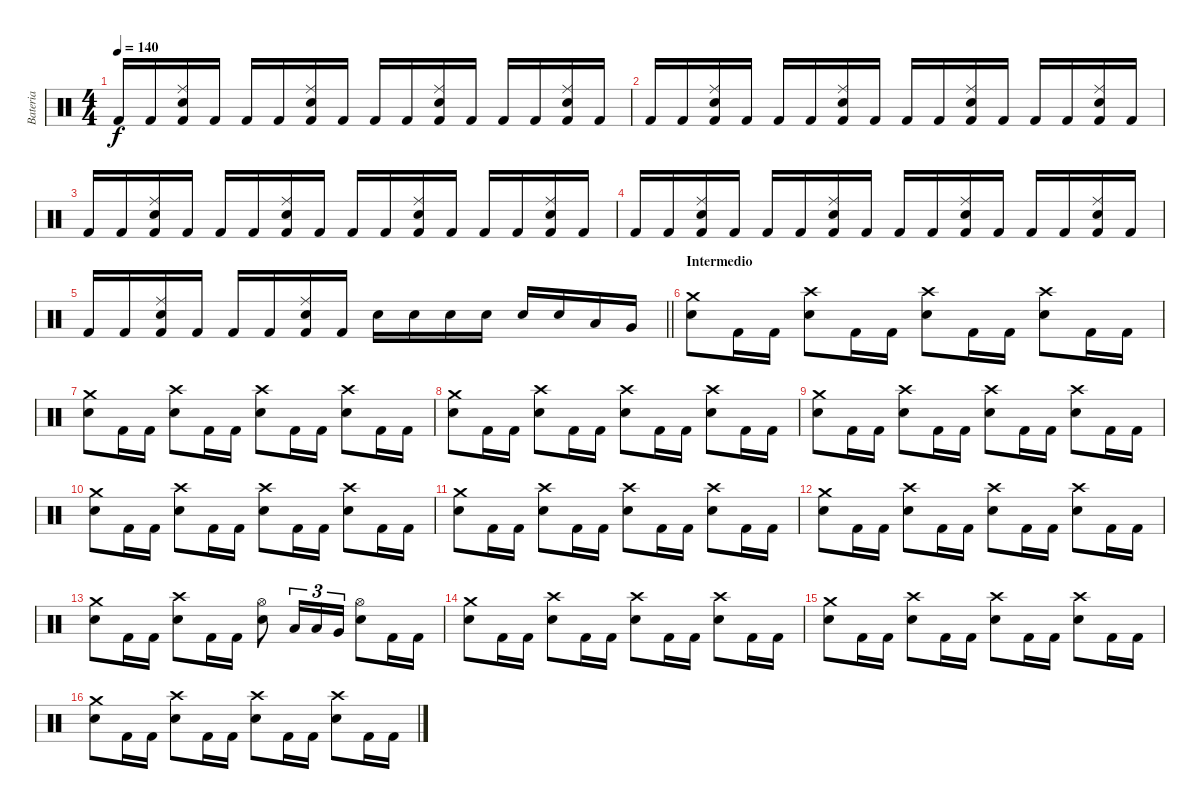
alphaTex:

\track ("Bateria" "Bateria") {instrument percussion}
\staff {score}
\articulation defaults
\ts (4 4)
\tempo 140
\clef neutral
\ks c "Kick (hit) 2".16{dy f} "Kick (hit) 2".16
("Ride (middle)" "Snare (hit) 2" "Kick (hit) 2").16 "Kick (hit) 2".16 "Kick (hit) 2".16 "Kick (hit) 2".16 ("Ride (middle)" "Snare (hit) 2" "Kick (hit) 2").16 "Kick (hit) 2".16 "Kick (hit) 2".16 "Kick (hit) 2".16 ("Ride (middle)" "Snare (hit) 2" "Kick (hit) 2").16 "Kick (hit) 2".16 "Kick (hit) 2".16 "Kick (hit) 2".16 ("Ride (middle)" "Snare (hit) 2" "Kick (hit) 2").16 "Kick (hit) 2".16 |
"Kick (hit) 2".16 "Kick (hit) 2".16 ("Ride (middle)" "Snare (hit) 2" "Kick (hit) 2").16 "Kick (hit) 2".16 "Kick (hit) 2".16 "Kick (hit) 2".16 ("Ride (middle)" "Snare (hit) 2" "Kick (hit) 2").16 "Kick (hit) 2".16 "Kick (hit) 2".16 "Kick (hit) 2".16 ("Ride (middle)" "Snare (hit) 2" "Kick (hit) 2").16 "Kick (hit) 2".16 "Kick (hit) 2".16 "Kick (hit) 2".16 ("Ride (middle)" "Snare (hit) 2" "Kick (hit) 2").16 "Kick (hit) 2".16 |
"Kick (hit) 2".16 "Kick (hit) 2".16 ("Ride (middle)" "Snare (hit) 2" "Kick (hit) 2").16 "Kick (hit) 2".16 "Kick (hit) 2".16 "Kick (hit) 2".16 ("Ride (middle)" "Snare (hit) 2" "Kick (hit) 2").16 "Kick (hit) 2".16 "Kick (hit) 2".16 "Kick (hit) 2".16 ("Ride (middle)" "Snare (hit) 2" "Kick (hit) 2").16 "Kick (hit) 2".16 "Kick (hit) 2".16 "Kick (hit) 2".16 ("Ride (middle)" "Snare (hit) 2" "Kick (hit) 2").16 "Kick (hit) 2".16 |
"Kick (hit) 2".16 "Kick (hit) 2".16 ("Ride (middle)" "Snare (hit) 2" "Kick (hit) 2").16 "Kick (hit) 2".16 "Kick (hit) 2".16 "Kick (hit) 2".16 ("Ride (middle)" "Snare (hit) 2" "Kick (hit) 2").16 "Kick (hit) 2".16 "Kick (hit) 2".16 "Kick (hit) 2".16 ("Ride (middle)" "Snare (hit) 2" "Kick (hit) 2").16 "Kick (hit) 2".16 "Kick (hit) 2".16 "Kick (hit) 2".16 ("Ride (middle)" "Snare (hit) 2" "Kick (hit) 2").16 "Kick (hit) 2".16 |
\barLineRight lightlight "Kick (hit) 2".16 "Kick (hit) 2".16
("Ride (middle)" "Snare (hit) 2" "Kick (hit) 2").16 "Kick (hit) 2".16 "Kick (hit) 2".16 "Kick (hit) 2".16 ("Ride (middle)" "Snare (hit) 2" "Kick (hit) 2").16 "Kick (hit) 2".16 "Snare (hit) 2".16 "Snare (hit) 2".16 "Snare (hit) 2".16 "Snare (hit) 2".16 "Snare (hit) 2".16 "Snare (hit) 2".16 "Low Tom (hit)".16 "Very Low Tom (hit)".16 |
\section ("" "Intermedio")
("Crash medium (hit)" "Snare (hit) 2").8 "Kick (hit) 2".16 "Kick (hit) 2".16 ("Crash high (hit)" "Snare (hit) 2").8 "Kick (hit) 2".16 "Kick (hit) 2".16 ("Crash high (hit)" "Snare (hit) 2").8 "Kick (hit) 2".16 "Kick (hit) 2".16 ("Crash high (hit)" "Snare (hit) 2").8 "Kick (hit) 2".16 "Kick (hit) 2".16 |
("Crash medium (hit)" "Snare (hit) 2").8 "Kick (hit) 2".16 "Kick (hit) 2".16 ("Crash high (hit)" "Snare (hit) 2").8 "Kick (hit) 2".16 "Kick (hit) 2".16 ("Crash high (hit)" "Snare (hit) 2").8 "Kick (hit) 2".16 "Kick (hit) 2".16 ("Crash high (hit)" "Snare (hit) 2").8 "Kick (hit) 2".16 "Kick (hit) 2".16 |
("Crash medium (hit)" "Snare (hit) 2").8 "Kick (hit) 2".16 "Kick (hit) 2".16 ("Crash high (hit)" "Snare (hit) 2").8 "Kick (hit) 2".16 "Kick (hit) 2".16 ("Crash high (hit)" "Snare (hit) 2").8 "Kick (hit) 2".16 "Kick (hit) 2".16 ("Crash high (hit)" "Snare (hit) 2").8 "Kick (hit) 2".16 "Kick (hit) 2".16 |
("Crash medium (hit)" "Snare (hit) 2").8 "Kick (hit) 2".16 "Kick (hit) 2".16 ("Crash high (hit)" "Snare (hit) 2").8 "Kick (hit) 2".16 "Kick (hit) 2".16 ("Crash high (hit)" "Snare (hit) 2").8 "Kick (hit) 2".16 "Kick (hit) 2".16 ("Crash high (hit)" "Snare (hit) 2").8 "Kick (hit) 2".16 "Kick (hit) 2".16 |
("Crash medium (hit)" "Snare (hit) 2").8 "Kick (hit) 2".16 "Kick (hit) 2".16 ("Crash high (hit)" "Snare (hit) 2").8 "Kick (hit) 2".16 "Kick (hit) 2".16 ("Crash high (hit)" "Snare (hit) 2").8 "Kick (hit) 2".16 "Kick (hit) 2".16 ("Crash high (hit)" "Snare (hit) 2").8 "Kick (hit) 2".16 "Kick (hit) 2".16 |
("Crash medium (hit)" "Snare (hit) 2").8 "Kick (hit) 2".16 "Kick (hit) 2".16 ("Crash high (hit)" "Snare (hit) 2").8 "Kick (hit) 2".16 "Kick (hit) 2".16 ("Crash high (hit)" "Snare (hit) 2").8 "Kick (hit) 2".16 "Kick (hit) 2".16 ("Crash high (hit)" "Snare (hit) 2").8 "Kick (hit) 2".16 "Kick (hit) 2".16 |
("Crash medium (hit)" "Snare (hit) 2").8 "Kick (hit) 2".16 "Kick (hit) 2".16 ("Crash high (hit)" "Snare (hit) 2").8 "Kick (hit) 2".16 "Kick (hit) 2".16 ("Crash high (hit)" "Snare (hit) 2").8 "Kick (hit) 2".16 "Kick (hit) 2".16 ("Crash high (hit)" "Snare (hit) 2").8 "Kick (hit) 2".16 "Kick (hit) 2".16 |
("Crash medium (hit)" "Snare (hit) 2").8 "Kick (hit) 2".16 "Kick (hit) 2".16 ("Crash high (hit)" "Snare (hit) 2").8 "Kick (hit) 2".16 "Kick (hit) 2".16 ("Hi-Hat (open)" "Snare (hit) 2").8 "Low Tom (hit)".16{tu (3 2)} "Low Tom (hit)".16{tu (3 2)} "Very Low Tom (hit)".16{tu (3 2)} ("Hi-Hat (open)" "Snare (hit) 2").8 "Kick (hit) 2".16 "Kick (hit) 2".16 |
("Crash medium (hit)" "Snare (hit) 2").8 "Kick (hit) 2".16 "Kick (hit) 2".16 ("Crash high (hit)" "Snare (hit) 2").8 "Kick (hit) 2".16 "Kick (hit) 2".16 ("Crash high (hit)" "Snare (hit) 2").8 "Kick (hit) 2".16 "Kick (hit) 2".16 ("Crash high (hit)" "Snare (hit) 2").8 "Kick (hit) 2".16 "Kick (hit) 2".16 |
("Crash medium (hit)" "Snare (hit) 2").8 "Kick (hit) 2".16 "Kick (hit) 2".16 ("Crash high (hit)" "Snare (hit) 2").8 "Kick (hit) 2".16 "Kick (hit) 2".16 ("Crash high (hit)" "Snare (hit) 2").8 "Kick (hit) 2".16 "Kick (hit) 2".16 ("Crash high (hit)" "Snare (hit) 2").8 "Kick (hit) 2".16 "Kick (hit) 2".16 |
("Crash medium (hit)" "Snare (hit) 2").8 "Kick (hit) 2".16 "Kick (hit) 2".16 ("Crash high (hit)" "Snare (hit) 2").8 "Kick (hit) 2".16 "Kick (hit) 2".16 ("Crash high (hit)" "Snare (hit) 2").8 "Kick (hit) 2".16 "Kick (hit) 2".16 ("Crash high (hit)" "Snare (hit) 2").8 "Kick (hit) 2".16 "Kick (hit) 2".16
